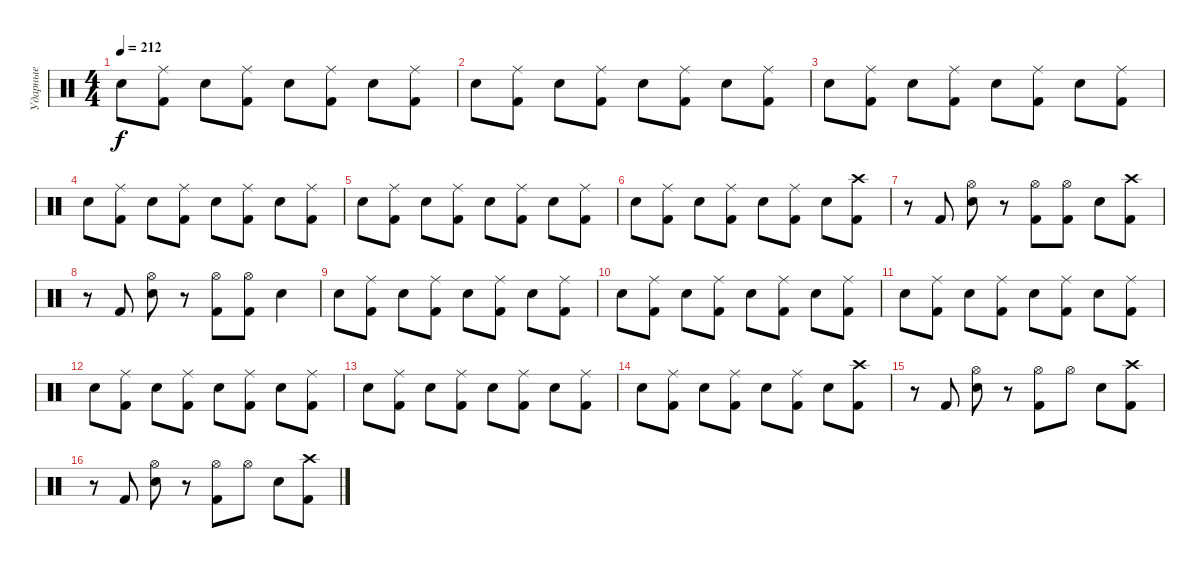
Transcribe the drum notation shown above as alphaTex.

\track ("Ударные" "Ударные") {instrument percussion}
\staff {score}
\articulation defaults
\ts (4 4)
\tempo 212
\clef neutral
\ks c "Electric Snare (hit)".8{dy f}
("Ride (middle)" "Kick (hit) 2").8 "Electric Snare (hit)".8 ("Ride (middle)" "Kick (hit) 2").8 "Electric Snare (hit)".8 ("Ride (middle)" "Kick (hit) 2").8 "Electric Snare (hit)".8 ("Ride (middle)" "Kick (hit) 2").8 |
"Electric Snare (hit)".8 ("Ride (middle)" "Kick (hit) 2").8 "Electric Snare (hit)".8 ("Ride (middle)" "Kick (hit) 2").8 "Electric Snare (hit)".8 ("Ride (middle)" "Kick (hit) 2").8 "Electric Snare (hit)".8 ("Ride (middle)" "Kick (hit) 2").8 |
"Electric Snare (hit)".8 ("Ride (middle)" "Kick (hit) 2").8 "Electric Snare (hit)".8 ("Ride (middle)" "Kick (hit) 2").8 "Electric Snare (hit)".8 ("Ride (middle)" "Kick (hit) 2").8 "Electric Snare (hit)".8 ("Ride (middle)" "Kick (hit) 2").8 |
"Electric Snare (hit)".8 ("Ride (middle)" "Kick (hit) 2").8 "Electric Snare (hit)".8 ("Ride (middle)" "Kick (hit) 2").8 "Electric Snare (hit)".8 ("Ride (middle)" "Kick (hit) 2").8 "Electric Snare (hit)".8 ("Ride (middle)" "Kick (hit) 2").8 |
"Electric Snare (hit)".8 ("Ride (middle)" "Kick (hit) 2").8 "Electric Snare (hit)".8 ("Ride (middle)" "Kick (hit) 2").8 "Electric Snare (hit)".8 ("Ride (middle)" "Kick (hit) 2").8 "Electric Snare (hit)".8 ("Ride (middle)" "Kick (hit) 2").8 |
"Electric Snare (hit)".8 ("Ride (middle)" "Kick (hit) 2").8 "Electric Snare (hit)".8 ("Ride (middle)" "Kick (hit) 2").8 "Electric Snare (hit)".8 ("Ride (middle)" "Kick (hit) 2").8 "Electric Snare (hit)".8 ("Crash high (hit)" "Kick (hit) 2").8 |
r.8 "Kick (hit) 2".8 ("Hi-Hat (open)" "Electric Snare (hit)").8 r.8 ("Hi-Hat (open)" "Kick (hit) 2").8 ("Hi-Hat (open)" "Kick (hit) 2").8 "Electric Snare (hit)".8 ("Crash high (hit)" "Kick (hit) 2").8 |
r.8 "Kick (hit) 2".8 ("Hi-Hat (open)" "Electric Snare (hit)").8 r.8 ("Hi-Hat (open)" "Kick (hit) 2").8 ("Hi-Hat (open)" "Kick (hit) 2").8 "Electric Snare (hit)".4 |
"Electric Snare (hit)".8 ("Ride (middle)" "Kick (hit) 2").8 "Electric Snare (hit)".8 ("Ride (middle)" "Kick (hit) 2").8 "Electric Snare (hit)".8 ("Ride (middle)" "Kick (hit) 2").8 "Electric Snare (hit)".8 ("Ride (middle)" "Kick (hit) 2").8 |
"Electric Snare (hit)".8 ("Ride (middle)" "Kick (hit) 2").8 "Electric Snare (hit)".8 ("Ride (middle)" "Kick (hit) 2").8 "Electric Snare (hit)".8 ("Ride (middle)" "Kick (hit) 2").8 "Electric Snare (hit)".8 ("Ride (middle)" "Kick (hit) 2").8 |
"Electric Snare (hit)".8 ("Ride (middle)" "Kick (hit) 2").8 "Electric Snare (hit)".8 ("Ride (middle)" "Kick (hit) 2").8 "Electric Snare (hit)".8 ("Ride (middle)" "Kick (hit) 2").8 "Electric Snare (hit)".8 ("Ride (middle)" "Kick (hit) 2").8 |
"Electric Snare (hit)".8 ("Ride (middle)" "Kick (hit) 2").8 "Electric Snare (hit)".8 ("Ride (middle)" "Kick (hit) 2").8 "Electric Snare (hit)".8 ("Ride (middle)" "Kick (hit) 2").8 "Electric Snare (hit)".8 ("Ride (middle)" "Kick (hit) 2").8 |
"Electric Snare (hit)".8 ("Ride (middle)" "Kick (hit) 2").8 "Electric Snare (hit)".8 ("Ride (middle)" "Kick (hit) 2").8 "Electric Snare (hit)".8 ("Ride (middle)" "Kick (hit) 2").8 "Electric Snare (hit)".8 ("Ride (middle)" "Kick (hit) 2").8 |
"Electric Snare (hit)".8 ("Ride (middle)" "Kick (hit) 2").8 "Electric Snare (hit)".8 ("Ride (middle)" "Kick (hit) 2").8 "Electric Snare (hit)".8 ("Ride (middle)" "Kick (hit) 2").8 "Electric Snare (hit)".8 ("Crash high (hit)" "Kick (hit) 2").8 |
r.8 "Kick (hit) 2".8 ("Hi-Hat (open)" "Electric Snare (hit)").8 r.8 ("Hi-Hat (open)" "Kick (hit) 2").8 "Hi-Hat (open)".8 "Electric Snare (hit)".8 ("Crash high (hit)" "Kick (hit) 2").8 |
r.8 "Kick (hit) 2".8 ("Hi-Hat (open)" "Electric Snare (hit)").8 r.8 ("Hi-Hat (open)" "Kick (hit) 2").8 "Hi-Hat (open)".8 "Electric Snare (hit)".8 ("Crash high (hit)" "Kick (hit) 2").8
